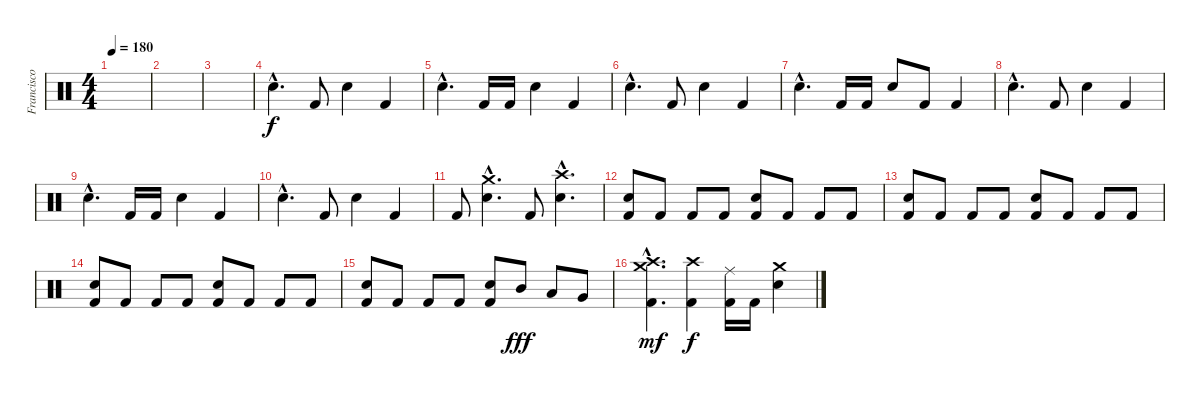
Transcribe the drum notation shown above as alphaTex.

\track ("Francisco Izquierdo (Percusión)" "Francisco ") {instrument percussion}
\staff {score}
\articulation defaults
\ts (4 4)
\tempo 180
\clef neutral
\ks c
|
|
|
"Electric Snare (hit)"{hac}.4{d dy f} "Kick (hit) 2".8 "Electric Snare (hit)".4 "Kick (hit) 2".4 |
"Electric Snare (hit)"{hac}.4{d} "Kick (hit) 2".16 "Kick (hit) 2".16 "Electric Snare (hit)".4 "Kick (hit) 2".4 |
"Electric Snare (hit)"{hac}.4{d} "Kick (hit) 2".8 "Electric Snare (hit)".4 "Kick (hit) 2".4 |
"Electric Snare (hit)"{hac}.4{d} "Kick (hit) 2".16 "Kick (hit) 2".16 "Electric Snare (hit)".8 "Kick (hit) 2".8 "Kick (hit) 2".4 |
"Electric Snare (hit)"{hac}.4{d} "Kick (hit) 2".8 "Electric Snare (hit)".4 "Kick (hit) 2".4 |
"Electric Snare (hit)"{hac}.4{d} "Kick (hit) 2".16 "Kick (hit) 2".16 "Electric Snare (hit)".4 "Kick (hit) 2".4 |
"Electric Snare (hit)"{hac}.4{d} "Kick (hit) 2".8 "Electric Snare (hit)".4 "Kick (hit) 2".4 |
"Kick (hit) 2".8 ("Crash medium (hit)"{hac} "Electric Snare (hit)"{hac}).4{d} "Kick (hit) 2".8 ("Crash high (hit)"{hac} "Electric Snare (hit)"{hac}).4{d} |
("Electric Snare (hit)" "Kick (hit) 2").8 "Kick (hit) 2".8 "Kick (hit) 2".8 "Kick (hit) 2".8 ("Electric Snare (hit)" "Kick (hit) 2").8 "Kick (hit) 2".8 "Kick (hit) 2".8 "Kick (hit) 2".8 |
("Electric Snare (hit)" "Kick (hit) 2").8 "Kick (hit) 2".8 "Kick (hit) 2".8 "Kick (hit) 2".8 ("Electric Snare (hit)" "Kick (hit) 2").8 "Kick (hit) 2".8 "Kick (hit) 2".8 "Kick (hit) 2".8 |
("Electric Snare (hit)" "Kick (hit) 2").8 "Kick (hit) 2".8 "Kick (hit) 2".8 "Kick (hit) 2".8 ("Electric Snare (hit)" "Kick (hit) 2").8 "Kick (hit) 2".8 "Kick (hit) 2".8 "Kick (hit) 2".8 |
("Electric Snare (hit)" "Kick (hit) 2").8 "Kick (hit) 2".8 "Kick (hit) 2".8 "Kick (hit) 2".8 ("Electric Snare (hit)" "Kick (hit) 2").8 "Mid Tom (hit)".8{dy fff} "Low Tom (hit)".8 "Very Low Tom (hit)".8 |
("Crash high (hit)"{hac} "Crash medium (hit)"{hac} "Kick (hit) 2"{hac}).4{d dy mf} ("Crash high (hit)" "Kick (hit) 2").4{dy f} ("Ride (middle)" "Kick (hit) 2").16 "Kick (hit) 2".16 ("Crash medium (hit)" "Electric Snare (hit)").4
